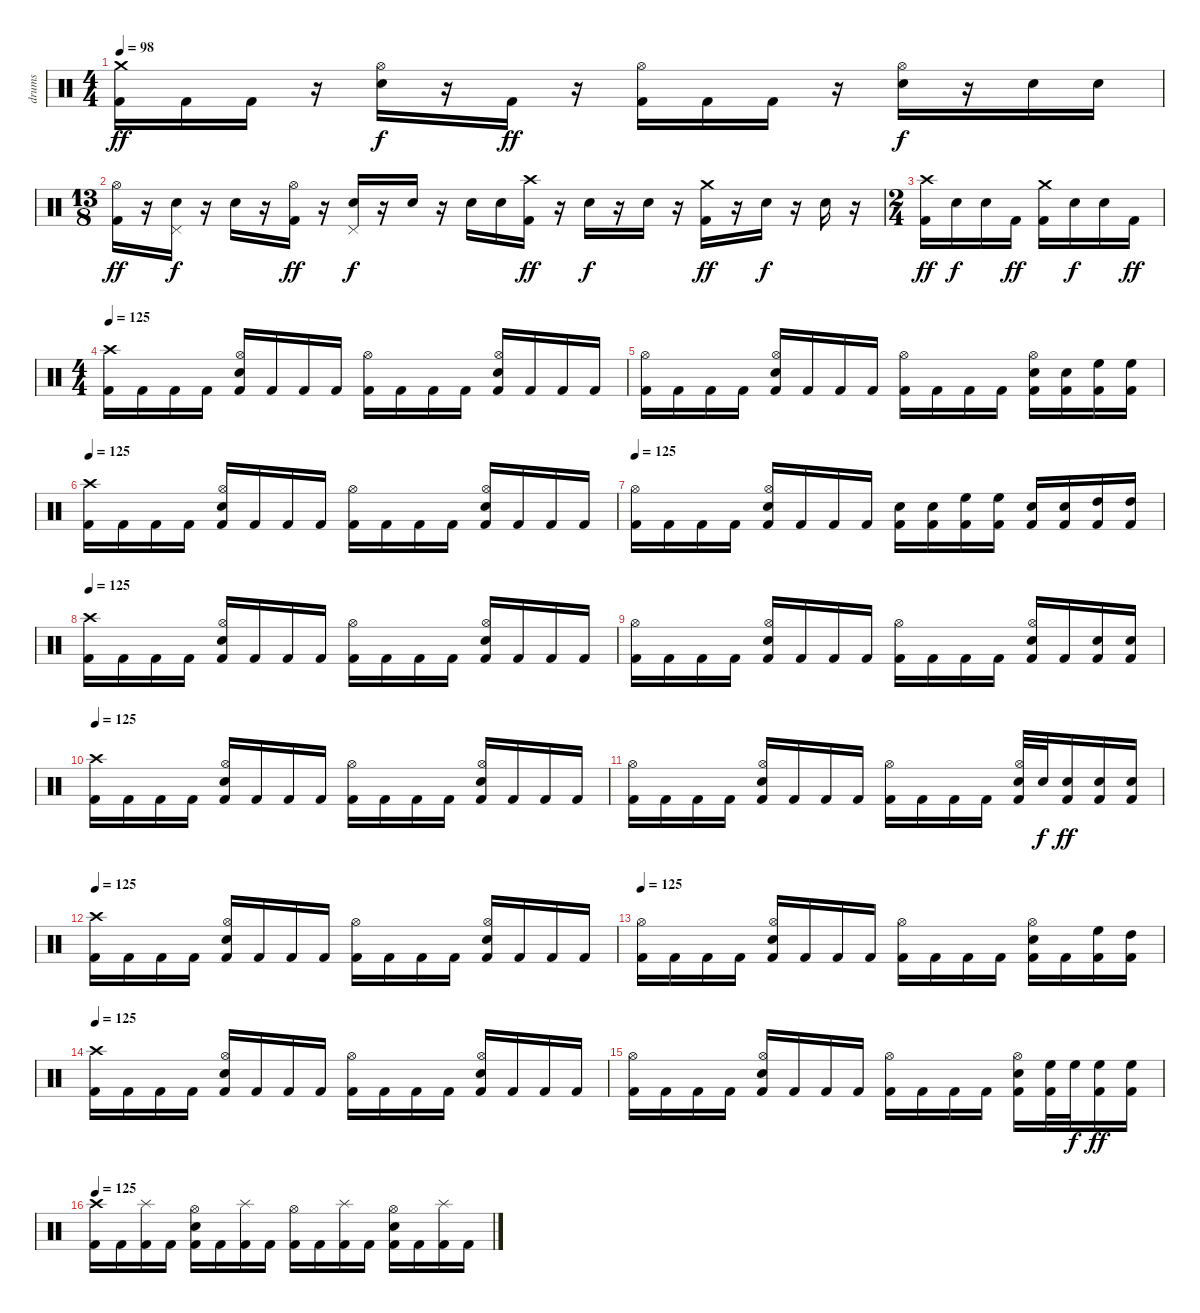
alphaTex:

\track ("drums" "drums") {instrument percussion}
\staff {score}
\articulation defaults
\ts (4 4)
\tempo 98
\clef neutral
\ks c
("Crash medium (hit)" "Kick (hit) 2").16{dy ff} "Kick (hit) 2".16 "Kick (hit) 2".16 r.16 ("Hi-Hat (open)" "Electric Snare (hit)").16{dy f} r.16 "Kick (hit) 2".16{dy ff} r.16 ("Hi-Hat (open)" "Kick (hit) 2").16 "Kick (hit) 2".16 "Kick (hit) 2".16 r.16 ("Hi-Hat (open)" "Electric Snare (hit)").16{dy f} r.16 "Electric Snare (hit)".16 "Electric Snare (hit)".16 |
\ts (13 8)
("Hi-Hat (open)" "Kick (hit) 2").16{dy ff} r.16 ("Pedal Hi-Hat (hit)" "Electric Snare (hit)").16{dy f} r.16 "Electric Snare (hit)".16 r.16 ("Hi-Hat (open)" "Kick (hit) 2").16{dy ff} r.16 ("Pedal Hi-Hat (hit)" "Electric Snare (hit)").16{dy f} r.16 "Electric Snare (hit)".16 r.16 "Electric Snare (hit)".16 "Electric Snare (hit)".16 ("Crash high (hit)" "Kick (hit) 2").16{dy ff} r.16 "Electric Snare (hit)".16{dy f} r.16 "Electric Snare (hit)".16 r.16 ("Crash medium (hit)" "Kick (hit) 2").16{dy ff} r.16 "Electric Snare (hit)".16{dy f} r.16 "Electric Snare (hit)".16 r.16 |
\ts (2 4)
("Crash high (hit)" "Kick (hit) 2").16{dy ff} "Electric Snare (hit)".16{dy f} "Electric Snare (hit)".16 "Kick (hit) 2".16{dy ff} ("Crash medium (hit)" "Kick (hit) 2").16 "Electric Snare (hit)".16{dy f} "Electric Snare (hit)".16 "Kick (hit) 2".16{dy ff} |
\ts (4 4)
\tempo 125
("Crash high (hit)" "Kick (hit) 2").16 "Kick (hit) 2".16 "Kick (hit) 2".16 "Kick (hit) 2".16 ("Hi-Hat (open)" "Electric Snare (hit)" "Kick (hit) 2").16 "Kick (hit) 2".16 "Kick (hit) 2".16 "Kick (hit) 2".16 ("Hi-Hat (open)" "Kick (hit) 2").16 "Kick (hit) 2".16 "Kick (hit) 2".16 "Kick (hit) 2".16 ("Hi-Hat (open)" "Electric Snare (hit)" "Kick (hit) 2").16 "Kick (hit) 2".16 "Kick (hit) 2".16 "Kick (hit) 2".16 |
("Hi-Hat (open)" "Kick (hit) 2").16 "Kick (hit) 2".16 "Kick (hit) 2".16 "Kick (hit) 2".16 ("Hi-Hat (open)" "Electric Snare (hit)" "Kick (hit) 2").16 "Kick (hit) 2".16 "Kick (hit) 2".16 "Kick (hit) 2".16 ("Hi-Hat (open)" "Kick (hit) 2").16 "Kick (hit) 2".16 "Kick (hit) 2".16 "Kick (hit) 2".16 ("Hi-Hat (open)" "Electric Snare (hit)" "Kick (hit) 2").16 ("Electric Snare (hit)" "Kick (hit) 2").16 ("High Floor Tom (hit)" "Kick (hit) 2").16 ("High Floor Tom (hit)" "Kick (hit) 2").16 |
\tempo 125
("Crash high (hit)" "Kick (hit) 2").16 "Kick (hit) 2".16 "Kick (hit) 2".16 "Kick (hit) 2".16 ("Hi-Hat (open)" "Electric Snare (hit)" "Kick (hit) 2").16 "Kick (hit) 2".16 "Kick (hit) 2".16 "Kick (hit) 2".16 ("Hi-Hat (open)" "Kick (hit) 2").16 "Kick (hit) 2".16 "Kick (hit) 2".16 "Kick (hit) 2".16 ("Hi-Hat (open)" "Electric Snare (hit)" "Kick (hit) 2").16 "Kick (hit) 2".16 "Kick (hit) 2".16 "Kick (hit) 2".16 |
\tempo 125
("Hi-Hat (open)" "Kick (hit) 2").16 "Kick (hit) 2".16 "Kick (hit) 2".16 "Kick (hit) 2".16 ("Hi-Hat (open)" "Electric Snare (hit)" "Kick (hit) 2").16 "Kick (hit) 2".16 "Kick (hit) 2".16 "Kick (hit) 2".16 ("Electric Snare (hit)" "Kick (hit) 2").16 ("Electric Snare (hit)" "Kick (hit) 2").16 ("High Floor Tom (hit)" "Kick (hit) 2").16 ("High Floor Tom (hit)" "Kick (hit) 2").16 ("Electric Snare (hit)" "Kick (hit) 2").16 ("Electric Snare (hit)" "Kick (hit) 2").16 ("High Tom (hit)" "Kick (hit) 2").16 ("High Tom (hit)" "Kick (hit) 2").16 |
\tempo 125
("Crash high (hit)" "Kick (hit) 2").16 "Kick (hit) 2".16 "Kick (hit) 2".16 "Kick (hit) 2".16 ("Hi-Hat (open)" "Electric Snare (hit)" "Kick (hit) 2").16 "Kick (hit) 2".16 "Kick (hit) 2".16 "Kick (hit) 2".16 ("Hi-Hat (open)" "Kick (hit) 2").16 "Kick (hit) 2".16 "Kick (hit) 2".16 "Kick (hit) 2".16 ("Hi-Hat (open)" "Electric Snare (hit)" "Kick (hit) 2").16 "Kick (hit) 2".16 "Kick (hit) 2".16 "Kick (hit) 2".16 |
("Hi-Hat (open)" "Kick (hit) 2").16 "Kick (hit) 2".16 "Kick (hit) 2".16 "Kick (hit) 2".16 ("Hi-Hat (open)" "Electric Snare (hit)" "Kick (hit) 2").16 "Kick (hit) 2".16 "Kick (hit) 2".16 "Kick (hit) 2".16 ("Hi-Hat (open)" "Kick (hit) 2").16 "Kick (hit) 2".16 "Kick (hit) 2".16 "Kick (hit) 2".16 ("Hi-Hat (open)" "Electric Snare (hit)" "Kick (hit) 2").16 "Kick (hit) 2".16 ("Electric Snare (hit)" "Kick (hit) 2").16 ("Electric Snare (hit)" "Kick (hit) 2").16 |
\tempo 125
("Crash high (hit)" "Kick (hit) 2").16 "Kick (hit) 2".16 "Kick (hit) 2".16 "Kick (hit) 2".16 ("Hi-Hat (open)" "Electric Snare (hit)" "Kick (hit) 2").16 "Kick (hit) 2".16 "Kick (hit) 2".16 "Kick (hit) 2".16 ("Hi-Hat (open)" "Kick (hit) 2").16 "Kick (hit) 2".16 "Kick (hit) 2".16 "Kick (hit) 2".16 ("Hi-Hat (open)" "Electric Snare (hit)" "Kick (hit) 2").16 "Kick (hit) 2".16 "Kick (hit) 2".16 "Kick (hit) 2".16 |
("Hi-Hat (open)" "Kick (hit) 2").16 "Kick (hit) 2".16 "Kick (hit) 2".16 "Kick (hit) 2".16 ("Hi-Hat (open)" "Electric Snare (hit)" "Kick (hit) 2").16 "Kick (hit) 2".16 "Kick (hit) 2".16 "Kick (hit) 2".16 ("Hi-Hat (open)" "Kick (hit) 2").16 "Kick (hit) 2".16 "Kick (hit) 2".16 "Kick (hit) 2".16 ("Hi-Hat (open)" "Electric Snare (hit)" "Kick (hit) 2").32 "Electric Snare (hit)".32{dy f} ("Electric Snare (hit)" "Kick (hit) 2").16{dy ff} ("Electric Snare (hit)" "Kick (hit) 2").16 ("Electric Snare (hit)" "Kick (hit) 2").16 |
\tempo 125
("Crash high (hit)" "Kick (hit) 2").16 "Kick (hit) 2".16 "Kick (hit) 2".16 "Kick (hit) 2".16 ("Hi-Hat (open)" "Electric Snare (hit)" "Kick (hit) 2").16 "Kick (hit) 2".16 "Kick (hit) 2".16 "Kick (hit) 2".16 ("Hi-Hat (open)" "Kick (hit) 2").16 "Kick (hit) 2".16 "Kick (hit) 2".16 "Kick (hit) 2".16 ("Hi-Hat (open)" "Electric Snare (hit)" "Kick (hit) 2").16 "Kick (hit) 2".16 "Kick (hit) 2".16 "Kick (hit) 2".16 |
\tempo 125
("Hi-Hat (open)" "Kick (hit) 2").16 "Kick (hit) 2".16 "Kick (hit) 2".16 "Kick (hit) 2".16 ("Hi-Hat (open)" "Electric Snare (hit)" "Kick (hit) 2").16 "Kick (hit) 2".16 "Kick (hit) 2".16 "Kick (hit) 2".16 ("Hi-Hat (open)" "Kick (hit) 2").16 "Kick (hit) 2".16 "Kick (hit) 2".16 "Kick (hit) 2".16 ("Hi-Hat (open)" "Electric Snare (hit)" "Kick (hit) 2").16 "Kick (hit) 2".16 ("High Floor Tom (hit)" "Kick (hit) 2").16 ("High Tom (hit)" "Kick (hit) 2").16 |
\tempo 125
("Crash high (hit)" "Kick (hit) 2").16 "Kick (hit) 2".16 "Kick (hit) 2".16 "Kick (hit) 2".16 ("Hi-Hat (open)" "Electric Snare (hit)" "Kick (hit) 2").16 "Kick (hit) 2".16 "Kick (hit) 2".16 "Kick (hit) 2".16 ("Hi-Hat (open)" "Kick (hit) 2").16 "Kick (hit) 2".16 "Kick (hit) 2".16 "Kick (hit) 2".16 ("Hi-Hat (open)" "Electric Snare (hit)" "Kick (hit) 2").16 "Kick (hit) 2".16 "Kick (hit) 2".16 "Kick (hit) 2".16 |
("Hi-Hat (open)" "Kick (hit) 2").16 "Kick (hit) 2".16 "Kick (hit) 2".16 "Kick (hit) 2".16 ("Hi-Hat (open)" "Electric Snare (hit)" "Kick (hit) 2").16 "Kick (hit) 2".16 "Kick (hit) 2".16 "Kick (hit) 2".16 ("Hi-Hat (open)" "Kick (hit) 2").16 "Kick (hit) 2".16 "Kick (hit) 2".16 "Kick (hit) 2".16 ("Hi-Hat (open)" "Electric Snare (hit)" "Kick (hit) 2").16 ("High Floor Tom (hit)" "Kick (hit) 2").32 "High Floor Tom (hit)".32{dy f} ("High Floor Tom (hit)" "Kick (hit) 2").16{dy ff} ("High Floor Tom (hit)" "Kick (hit) 2").16 |
\tempo 125
("Crash high (hit)" "Kick (hit) 2").16 "Kick (hit) 2".16 ("Splash (hit)" "Kick (hit) 2").16 "Kick (hit) 2".16 ("Hi-Hat (open)" "Electric Snare (hit)" "Kick (hit) 2").16 "Kick (hit) 2".16 ("Splash (hit)" "Kick (hit) 2").16 "Kick (hit) 2".16 ("Hi-Hat (open)" "Kick (hit) 2").16 "Kick (hit) 2".16 ("Splash (hit)" "Kick (hit) 2").16 "Kick (hit) 2".16 ("Hi-Hat (open)" "Electric Snare (hit)" "Kick (hit) 2").16 "Kick (hit) 2".16 ("Splash (hit)" "Kick (hit) 2").16 "Kick (hit) 2".16
